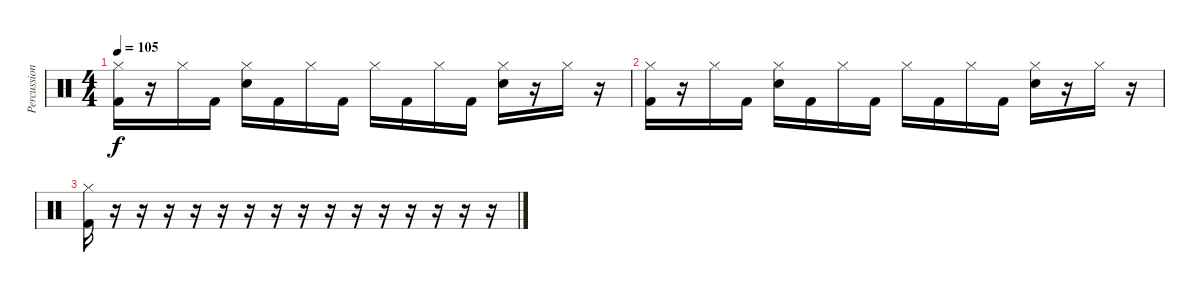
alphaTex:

\track ("Percussion" "Percussion") {instrument percussion}
\staff {score}
\articulation defaults
\ts (4 4)
\tempo 105
\clef neutral
\ks c
("Hi-Hat (closed)" "Kick (hit) 2").16{dy f} r.16 "Hi-Hat (closed)".16 "Kick (hit) 2".16 ("Hi-Hat (closed)" "Electric Snare (hit)").16 "Kick (hit) 2".16 "Hi-Hat (closed)".16 "Kick (hit) 2".16 "Hi-Hat (closed)".16 "Kick (hit) 2".16 "Hi-Hat (closed)".16 "Kick (hit) 2".16 ("Hi-Hat (closed)" "Electric Snare (hit)").16 r.16 "Hi-Hat (closed)".16 r.16 |
("Hi-Hat (closed)" "Kick (hit) 2").16 r.16 "Hi-Hat (closed)".16 "Kick (hit) 2".16 ("Hi-Hat (closed)" "Electric Snare (hit)").16 "Kick (hit) 2".16 "Hi-Hat (closed)".16 "Kick (hit) 2".16 "Hi-Hat (closed)".16 "Kick (hit) 2".16 "Hi-Hat (closed)".16 "Kick (hit) 2".16 ("Hi-Hat (closed)" "Electric Snare (hit)").16 r.16 "Hi-Hat (closed)".16 r.16 |
("Hi-Hat (closed)" "Kick (hit) 2").16 r.16 r.16 r.16 r.16 r.16 r.16 r.16 r.16 r.16 r.16 r.16 r.16 r.16 r.16 r.16
